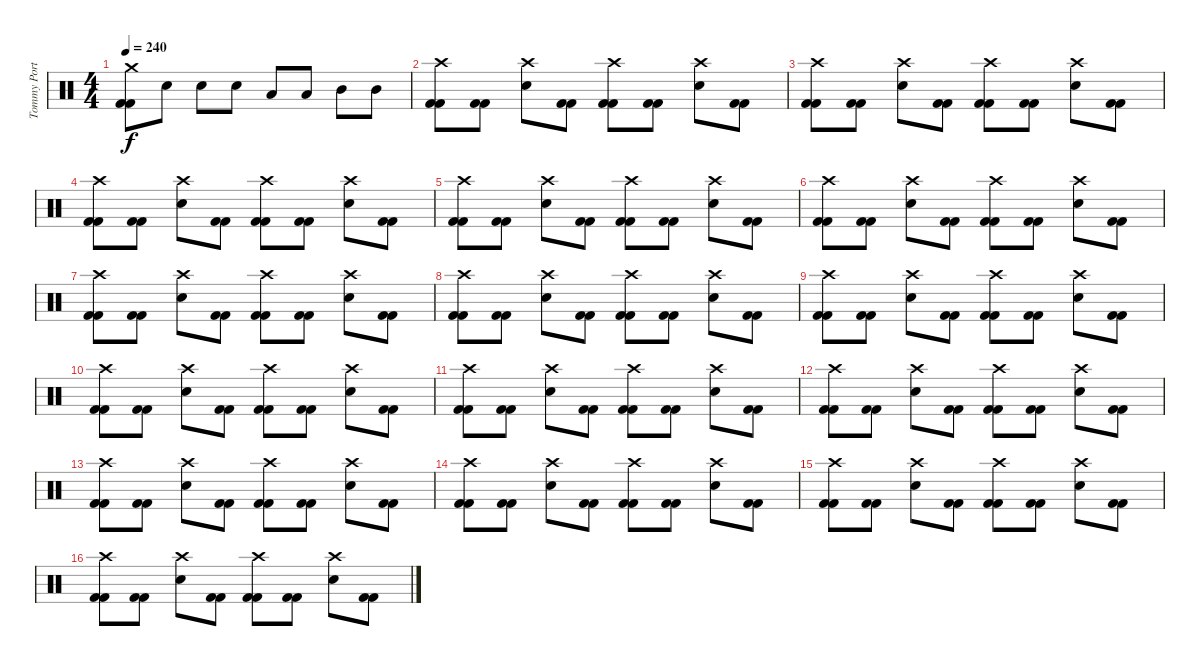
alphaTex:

\track ("Tommy Portimo " "Tommy Port") {instrument percussion}
\staff {score}
\articulation defaults
\ts (4 4)
\tempo 240
\clef neutral
\ks c
("Crash medium (hit)" "Kick (hit) 2" "Kick (hit) 2").8{dy f} "Electric Snare (hit)".8 "Electric Snare (hit)".8 "Electric Snare (hit)".8 "Low Tom (hit)".8 "Low Tom (hit)".8 "Mid Tom (hit)".8 "Mid Tom (hit)".8 |
("Crash high (hit)" "Kick (hit) 2" "Kick (hit) 2").8 ("Kick (hit) 2" "Kick (hit) 2").8 ("Crash high (hit)" "Electric Snare (hit)").8 ("Kick (hit) 2" "Kick (hit) 2").8 ("Crash high (hit)" "Kick (hit) 2" "Kick (hit) 2").8 ("Kick (hit) 2" "Kick (hit) 2").8 ("Crash high (hit)" "Electric Snare (hit)").8 ("Kick (hit) 2" "Kick (hit) 2").8 |
("Crash high (hit)" "Kick (hit) 2" "Kick (hit) 2").8 ("Kick (hit) 2" "Kick (hit) 2").8 ("Crash high (hit)" "Electric Snare (hit)").8 ("Kick (hit) 2" "Kick (hit) 2").8 ("Crash high (hit)" "Kick (hit) 2" "Kick (hit) 2").8 ("Kick (hit) 2" "Kick (hit) 2").8 ("Crash high (hit)" "Electric Snare (hit)").8 ("Kick (hit) 2" "Kick (hit) 2").8 |
("Crash high (hit)" "Kick (hit) 2" "Kick (hit) 2").8 ("Kick (hit) 2" "Kick (hit) 2").8 ("Crash high (hit)" "Electric Snare (hit)").8 ("Kick (hit) 2" "Kick (hit) 2").8 ("Crash high (hit)" "Kick (hit) 2" "Kick (hit) 2").8 ("Kick (hit) 2" "Kick (hit) 2").8 ("Crash high (hit)" "Electric Snare (hit)").8 ("Kick (hit) 2" "Kick (hit) 2").8 |
("Crash high (hit)" "Kick (hit) 2" "Kick (hit) 2").8 ("Kick (hit) 2" "Kick (hit) 2").8 ("Crash high (hit)" "Electric Snare (hit)").8 ("Kick (hit) 2" "Kick (hit) 2").8 ("Crash high (hit)" "Kick (hit) 2" "Kick (hit) 2").8 ("Kick (hit) 2" "Kick (hit) 2").8 ("Crash high (hit)" "Electric Snare (hit)").8 ("Kick (hit) 2" "Kick (hit) 2").8 |
("Crash high (hit)" "Kick (hit) 2" "Kick (hit) 2").8 ("Kick (hit) 2" "Kick (hit) 2").8 ("Crash high (hit)" "Electric Snare (hit)").8 ("Kick (hit) 2" "Kick (hit) 2").8 ("Crash high (hit)" "Kick (hit) 2" "Kick (hit) 2").8 ("Kick (hit) 2" "Kick (hit) 2").8 ("Crash high (hit)" "Electric Snare (hit)").8 ("Kick (hit) 2" "Kick (hit) 2").8 |
("Crash high (hit)" "Kick (hit) 2" "Kick (hit) 2").8 ("Kick (hit) 2" "Kick (hit) 2").8 ("Crash high (hit)" "Electric Snare (hit)").8 ("Kick (hit) 2" "Kick (hit) 2").8 ("Crash high (hit)" "Kick (hit) 2" "Kick (hit) 2").8 ("Kick (hit) 2" "Kick (hit) 2").8 ("Crash high (hit)" "Electric Snare (hit)").8 ("Kick (hit) 2" "Kick (hit) 2").8 |
("Crash high (hit)" "Kick (hit) 2" "Kick (hit) 2").8 ("Kick (hit) 2" "Kick (hit) 2").8 ("Crash high (hit)" "Electric Snare (hit)").8 ("Kick (hit) 2" "Kick (hit) 2").8 ("Crash high (hit)" "Kick (hit) 2" "Kick (hit) 2").8 ("Kick (hit) 2" "Kick (hit) 2").8 ("Crash high (hit)" "Electric Snare (hit)").8 ("Kick (hit) 2" "Kick (hit) 2").8 |
("Crash high (hit)" "Kick (hit) 2" "Kick (hit) 2").8 ("Kick (hit) 2" "Kick (hit) 2").8 ("Crash high (hit)" "Electric Snare (hit)").8 ("Kick (hit) 2" "Kick (hit) 2").8 ("Crash high (hit)" "Kick (hit) 2" "Kick (hit) 2").8 ("Kick (hit) 2" "Kick (hit) 2").8 ("Crash high (hit)" "Electric Snare (hit)").8 ("Kick (hit) 2" "Kick (hit) 2").8 |
("Crash high (hit)" "Kick (hit) 2" "Kick (hit) 2").8 ("Kick (hit) 2" "Kick (hit) 2").8 ("Crash high (hit)" "Electric Snare (hit)").8 ("Kick (hit) 2" "Kick (hit) 2").8 ("Crash high (hit)" "Kick (hit) 2" "Kick (hit) 2").8 ("Kick (hit) 2" "Kick (hit) 2").8 ("Crash high (hit)" "Electric Snare (hit)").8 ("Kick (hit) 2" "Kick (hit) 2").8 |
("Crash high (hit)" "Kick (hit) 2" "Kick (hit) 2").8 ("Kick (hit) 2" "Kick (hit) 2").8 ("Crash high (hit)" "Electric Snare (hit)").8 ("Kick (hit) 2" "Kick (hit) 2").8 ("Crash high (hit)" "Kick (hit) 2" "Kick (hit) 2").8 ("Kick (hit) 2" "Kick (hit) 2").8 ("Crash high (hit)" "Electric Snare (hit)").8 ("Kick (hit) 2" "Kick (hit) 2").8 |
("Crash high (hit)" "Kick (hit) 2" "Kick (hit) 2").8 ("Kick (hit) 2" "Kick (hit) 2").8 ("Crash high (hit)" "Electric Snare (hit)").8 ("Kick (hit) 2" "Kick (hit) 2").8 ("Crash high (hit)" "Kick (hit) 2" "Kick (hit) 2").8 ("Kick (hit) 2" "Kick (hit) 2").8 ("Crash high (hit)" "Electric Snare (hit)").8 ("Kick (hit) 2" "Kick (hit) 2").8 |
("Crash high (hit)" "Kick (hit) 2" "Kick (hit) 2").8 ("Kick (hit) 2" "Kick (hit) 2").8 ("Crash high (hit)" "Electric Snare (hit)").8 ("Kick (hit) 2" "Kick (hit) 2").8 ("Crash high (hit)" "Kick (hit) 2" "Kick (hit) 2").8 ("Kick (hit) 2" "Kick (hit) 2").8 ("Crash high (hit)" "Electric Snare (hit)").8 ("Kick (hit) 2" "Kick (hit) 2").8 |
("Crash high (hit)" "Kick (hit) 2" "Kick (hit) 2").8 ("Kick (hit) 2" "Kick (hit) 2").8 ("Crash high (hit)" "Electric Snare (hit)").8 ("Kick (hit) 2" "Kick (hit) 2").8 ("Crash high (hit)" "Kick (hit) 2" "Kick (hit) 2").8 ("Kick (hit) 2" "Kick (hit) 2").8 ("Crash high (hit)" "Electric Snare (hit)").8 ("Kick (hit) 2" "Kick (hit) 2").8 |
("Crash high (hit)" "Kick (hit) 2" "Kick (hit) 2").8 ("Kick (hit) 2" "Kick (hit) 2").8 ("Crash high (hit)" "Electric Snare (hit)").8 ("Kick (hit) 2" "Kick (hit) 2").8 ("Crash high (hit)" "Kick (hit) 2" "Kick (hit) 2").8 ("Kick (hit) 2" "Kick (hit) 2").8 ("Crash high (hit)" "Electric Snare (hit)").8 ("Kick (hit) 2" "Kick (hit) 2").8 |
("Crash high (hit)" "Kick (hit) 2" "Kick (hit) 2").8 ("Kick (hit) 2" "Kick (hit) 2").8 ("Crash high (hit)" "Electric Snare (hit)").8 ("Kick (hit) 2" "Kick (hit) 2").8 ("Crash high (hit)" "Kick (hit) 2" "Kick (hit) 2").8 ("Kick (hit) 2" "Kick (hit) 2").8 ("Crash high (hit)" "Electric Snare (hit)").8 ("Kick (hit) 2" "Kick (hit) 2").8
